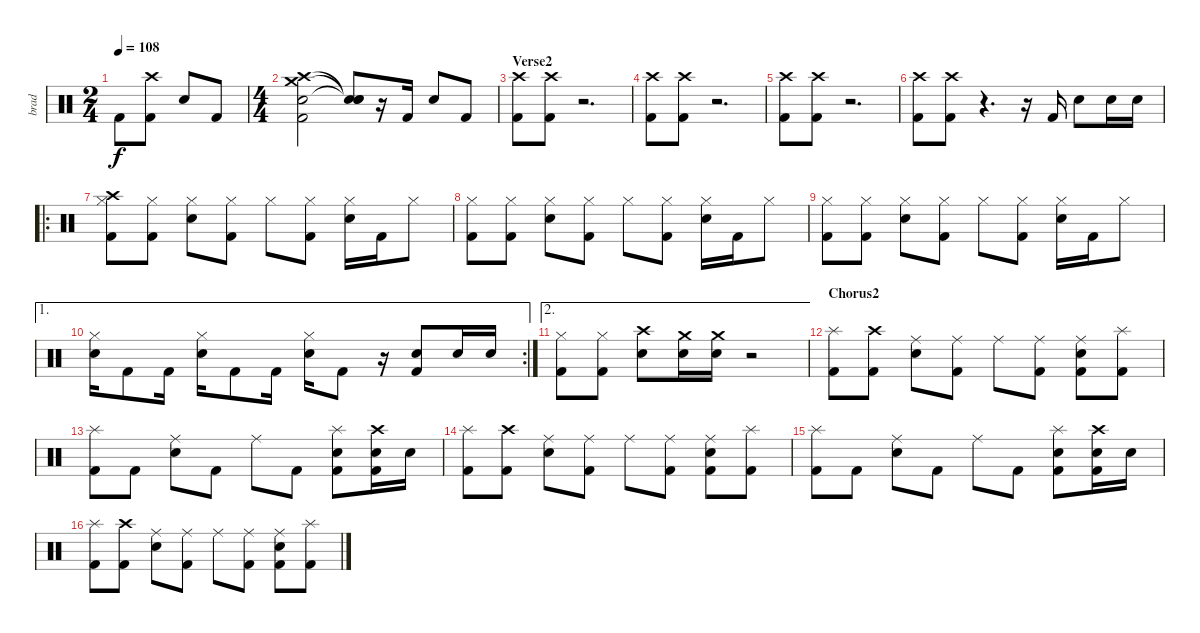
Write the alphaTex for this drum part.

\track ("brad" "brad") {instrument percussion}
\staff {score}
\articulation defaults
\ts (2 4)
\tempo 108
\clef neutral
\ks c "Kick (hit) 2".8{dy f}
("Crash high (hit)" "Kick (hit) 2").8 "Electric Snare (hit)".8 "Kick (hit) 2".8 |
\ts (4 4)
("Crash medium (hit)" "Crash high (hit)" "Electric Snare (hit)" "Kick (hit) 2").2 ("Snare (hit)"{t} "Snare (hit)"{t} "Snare (hit)"{t}).8 r.16 "Kick (hit) 2".16 "Electric Snare (hit)".8 "Kick (hit) 2".8 |
\section ("" "Verse2")
("Crash high (hit)" "Kick (hit) 2").8 ("Crash high (hit)" "Kick (hit) 2").8 r.2{d} |
("Crash high (hit)" "Kick (hit) 2").8 ("Crash high (hit)" "Kick (hit) 2").8 r.2{d} |
("Crash high (hit)" "Kick (hit) 2").8 ("Crash high (hit)" "Kick (hit) 2").8 r.2{d} |
("Crash high (hit)" "Kick (hit) 2").8 ("Crash high (hit)" "Kick (hit) 2").8 r.4{d} r.16 "Kick (hit) 2".16 "Electric Snare (hit)".8 "Electric Snare (hit)".16 "Electric Snare (hit)".16 |
\ro
("Crash high (hit)" "Hi-Hat (closed)" "Kick (hit) 2").8 ("Hi-Hat (closed)" "Kick (hit) 2").8 ("Hi-Hat (closed)" "Electric Snare (hit)").8 ("Hi-Hat (closed)" "Kick (hit) 2").8 "Hi-Hat (closed)".8 ("Hi-Hat (closed)" "Kick (hit) 2").8 ("Hi-Hat (closed)" "Electric Snare (hit)").16 "Kick (hit) 2".16 "Hi-Hat (closed)".8 |
("Hi-Hat (closed)" "Kick (hit) 2").8 ("Hi-Hat (closed)" "Kick (hit) 2").8 ("Hi-Hat (closed)" "Electric Snare (hit)").8 ("Hi-Hat (closed)" "Kick (hit) 2").8 "Hi-Hat (closed)".8 ("Hi-Hat (closed)" "Kick (hit) 2").8 ("Hi-Hat (closed)" "Electric Snare (hit)").16 "Kick (hit) 2".16 "Hi-Hat (closed)".8 |
("Hi-Hat (closed)" "Kick (hit) 2").8 ("Hi-Hat (closed)" "Kick (hit) 2").8 ("Hi-Hat (closed)" "Electric Snare (hit)").8 ("Hi-Hat (closed)" "Kick (hit) 2").8 "Hi-Hat (closed)".8 ("Hi-Hat (closed)" "Kick (hit) 2").8 ("Hi-Hat (closed)" "Electric Snare (hit)").16 "Kick (hit) 2".16 "Hi-Hat (closed)".8 |
\ae 1
\rc 2
("Hi-Hat (closed)" "Electric Snare (hit)").16 "Kick (hit) 2".8 "Kick (hit) 2".16 ("Hi-Hat (closed)" "Electric Snare (hit)").16 "Kick (hit) 2".8 "Kick (hit) 2".16 ("Hi-Hat (closed)" "Electric Snare (hit)").16 "Kick (hit) 2".8 r.16 ("Electric Snare (hit)" "Kick (hit) 2").8 "Electric Snare (hit)".16 "Electric Snare (hit)".16 |
\ae 2
("Hi-Hat (closed)" "Kick (hit) 2").8 ("Hi-Hat (closed)" "Kick (hit) 2").8 ("Crash high (hit)" "Electric Snare (hit)").8 ("Crash medium (hit)" "Electric Snare (hit)").16 ("Crash medium (hit)" "Electric Snare (hit)").16 r.2 |
\section ("" "Chorus2")
("Splash (hit)" "Kick (hit) 2").8 ("Crash high (hit)" "Kick (hit) 2").8 ("Ride (middle)" "Electric Snare (hit)").8 ("Ride (middle)" "Kick (hit) 2").8 "Ride (middle)".8 ("Ride (middle)" "Kick (hit) 2").8 ("Ride (middle)" "Electric Snare (hit)" "Kick (hit) 2").8 ("Splash (hit)" "Kick (hit) 2").8 |
("Splash (hit)" "Kick (hit) 2").8 "Kick (hit) 2".8 ("Ride (middle)" "Electric Snare (hit)").8 "Kick (hit) 2".8 "Ride (middle)".8 "Kick (hit) 2".8 ("Splash (hit)" "Electric Snare (hit)" "Kick (hit) 2").8 ("Crash high (hit)" "Electric Snare (hit)" "Kick (hit) 2").16 "Electric Snare (hit)".16 |
("Splash (hit)" "Kick (hit) 2").8 ("Crash high (hit)" "Kick (hit) 2").8 ("Ride (middle)" "Electric Snare (hit)").8 ("Ride (middle)" "Kick (hit) 2").8 "Ride (middle)".8 ("Ride (middle)" "Kick (hit) 2").8 ("Ride (middle)" "Electric Snare (hit)" "Kick (hit) 2").8 ("Splash (hit)" "Kick (hit) 2").8 |
("Splash (hit)" "Kick (hit) 2").8 "Kick (hit) 2".8 ("Ride (middle)" "Electric Snare (hit)").8 "Kick (hit) 2".8 "Ride (middle)".8 "Kick (hit) 2".8 ("Splash (hit)" "Electric Snare (hit)" "Kick (hit) 2").8 ("Crash high (hit)" "Electric Snare (hit)" "Kick (hit) 2").16 "Electric Snare (hit)".16 |
("Splash (hit)" "Kick (hit) 2").8 ("Crash high (hit)" "Kick (hit) 2").8 ("Ride (middle)" "Electric Snare (hit)").8 ("Ride (middle)" "Kick (hit) 2").8 "Ride (middle)".8 ("Ride (middle)" "Kick (hit) 2").8 ("Ride (middle)" "Electric Snare (hit)" "Kick (hit) 2").8 ("Splash (hit)" "Kick (hit) 2").8
